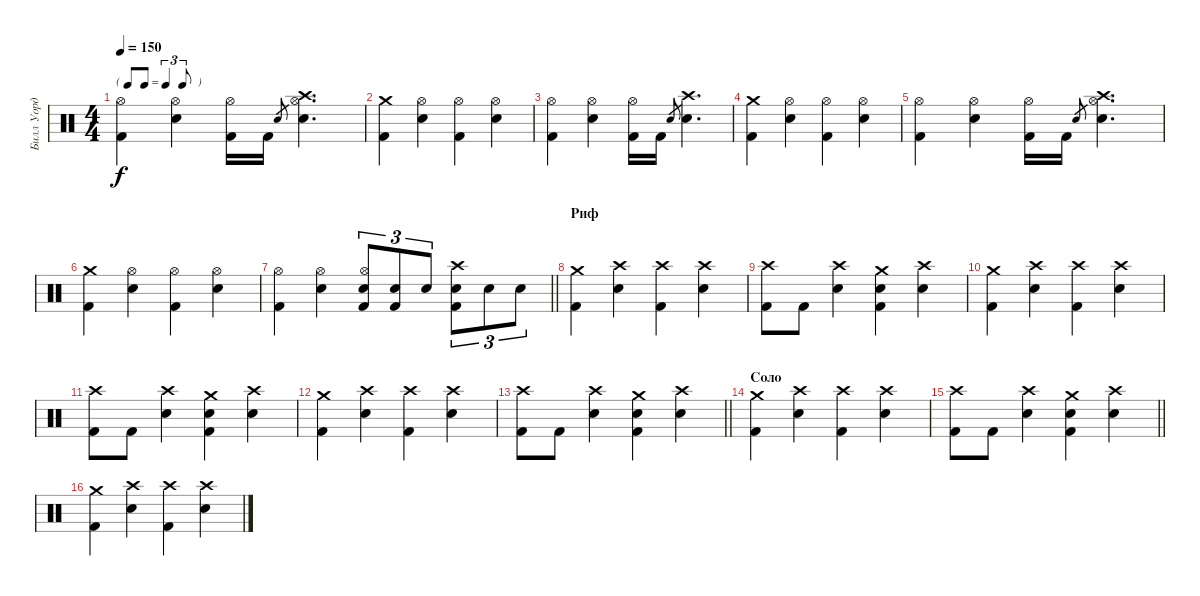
\track ("Билл Уорд" "Билл Уорд") {instrument percussion}
\staff {score}
\articulation defaults
\ts (4 4)
\tf triplet8th
\tempo 150
\clef neutral
\ks c
("Kick (hit) 2" "Hi-Hat (open)").4{dy f} ("Snare (hit) 2" "Hi-Hat (open)").4 ("Kick (hit) 2" "Hi-Hat (open)").16 "Kick (hit) 2".16 "Snare (hit) 2".8{gr} ("Snare (hit) 2" "Hi-Hat (open)" "Crash high (hit)").4{d} |
("Crash medium (hit)" "Kick (hit) 2").4 ("Hi-Hat (open)" "Snare (hit) 2").4 ("Hi-Hat (open)" "Kick (hit) 2").4 ("Hi-Hat (open)" "Snare (hit) 2").4 |
("Kick (hit) 2" "Hi-Hat (open)").4 ("Snare (hit) 2" "Hi-Hat (open)").4 ("Kick (hit) 2" "Hi-Hat (open)").16 "Kick (hit) 2".16 "Snare (hit) 2".8{gr} ("Snare (hit) 2" "Crash high (hit)").4{d} |
("Crash medium (hit)" "Kick (hit) 2").4 ("Hi-Hat (open)" "Snare (hit) 2").4 ("Hi-Hat (open)" "Kick (hit) 2").4 ("Hi-Hat (open)" "Snare (hit) 2").4 |
("Kick (hit) 2" "Hi-Hat (open)").4 ("Snare (hit) 2" "Hi-Hat (open)").4 ("Kick (hit) 2" "Hi-Hat (open)").16 "Kick (hit) 2".16 "Snare (hit) 2".8{gr} ("Snare (hit) 2" "Hi-Hat (open)" "Crash high (hit)").4{d} |
("Crash medium (hit)" "Kick (hit) 2").4 ("Hi-Hat (open)" "Snare (hit) 2").4 ("Hi-Hat (open)" "Kick (hit) 2").4 ("Hi-Hat (open)" "Snare (hit) 2").4 |
\barLineRight lightlight
("Kick (hit) 2" "Hi-Hat (open)").4 ("Snare (hit) 2" "Hi-Hat (open)").4 ("Kick (hit) 2" "Hi-Hat (open)" "Snare (hit) 2").8{tu (3 2)} ("Kick (hit) 2" "Snare (hit) 2").8{tu (3 2)} "Snare (hit) 2".8{tu (3 2)} ("Snare (hit) 2" "Kick (hit) 2" "Crash high (hit)").8{tu (3 2)} "Snare (hit) 2".8{tu (3 2)} "Snare (hit) 2".8{tu (3 2)} |
\section ("" "Риф")
("Kick (hit) 2" "Crash medium (hit)").4 ("Snare (hit) 2" "Crash high (hit)").4 ("Kick (hit) 2" "Crash high (hit)").4 ("Snare (hit) 2" "Crash high (hit)").4 |
("Kick (hit) 2" "Crash high (hit)").8 "Kick (hit) 2".8 ("Snare (hit) 2" "Crash high (hit)").4 ("Snare (hit) 2" "Kick (hit) 2" "Crash medium (hit)").4 ("Snare (hit) 2" "Crash high (hit)").4 |
("Kick (hit) 2" "Crash medium (hit)").4 ("Snare (hit) 2" "Crash high (hit)").4 ("Kick (hit) 2" "Crash high (hit)").4 ("Snare (hit) 2" "Crash high (hit)").4 |
("Kick (hit) 2" "Crash high (hit)").8 "Kick (hit) 2".8 ("Snare (hit) 2" "Crash high (hit)").4 ("Snare (hit) 2" "Kick (hit) 2" "Crash medium (hit)").4 ("Snare (hit) 2" "Crash high (hit)").4 |
("Kick (hit) 2" "Crash medium (hit)").4 ("Snare (hit) 2" "Crash high (hit)").4 ("Kick (hit) 2" "Crash high (hit)").4 ("Snare (hit) 2" "Crash high (hit)").4 |
\barLineRight lightlight
("Kick (hit) 2" "Crash high (hit)").8 "Kick (hit) 2".8 ("Snare (hit) 2" "Crash high (hit)").4 ("Snare (hit) 2" "Kick (hit) 2" "Crash medium (hit)").4 ("Snare (hit) 2" "Crash high (hit)").4 |
\section ("" "Соло")
("Kick (hit) 2" "Crash medium (hit)").4 ("Snare (hit) 2" "Crash high (hit)").4 ("Kick (hit) 2" "Crash high (hit)").4 ("Snare (hit) 2" "Crash high (hit)").4 |
\barLineRight lightlight
("Kick (hit) 2" "Crash high (hit)").8 "Kick (hit) 2".8 ("Snare (hit) 2" "Crash high (hit)").4 ("Snare (hit) 2" "Kick (hit) 2" "Crash medium (hit)").4 ("Snare (hit) 2" "Crash high (hit)").4 |
("Kick (hit) 2" "Crash medium (hit)").4 ("Snare (hit) 2" "Crash high (hit)").4 ("Kick (hit) 2" "Crash high (hit)").4 ("Snare (hit) 2" "Crash high (hit)").4
